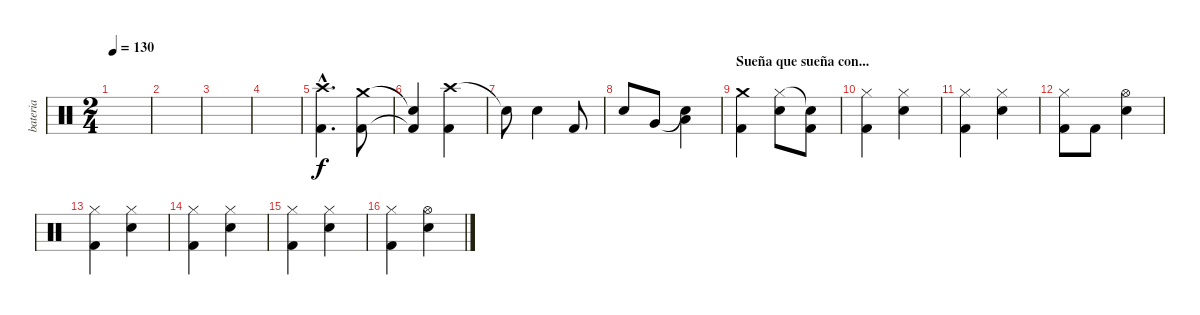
\track ("bateria" "bateria") {instrument percussion}
\staff {score}
\articulation defaults
\ts (2 4)
\tempo 130
\clef neutral
\ks c
|
|
|
|
("Crash high (hit)"{hac} "Kick (hit) 2"{hac}).4{d} ("Crash medium (hit)" "Kick (hit) 2").8 |
("Snare (hit)"{t} "Kick (hit) 2"{t}).4 ("Crash high (hit)" "Kick (hit) 2").4 |
"Snare (hit)"{t}.8 "Snare (hit) 2".4 "Kick (hit) 2".8 |
"Snare (hit) 2".8 "Very Low Tom (hit)".8 ("Snare (hit)"{t} "Low Floor Tom (hit)").4 |
\section ("" "Sueña que sueña con...")
("Crash medium (hit)" "Kick (hit) 2").4 ("Hi-Hat (closed)" "Electric Snare (hit)").8 ("Snare (hit)"{t} "Kick (hit) 2").8 |
("Hi-Hat (closed)" "Kick (hit) 2").4 ("Hi-Hat (closed)" "Electric Snare (hit)").4 |
("Hi-Hat (closed)" "Kick (hit) 2").4 ("Hi-Hat (closed)" "Electric Snare (hit)").4 |
("Hi-Hat (closed)" "Kick (hit) 2").8 "Kick (hit) 2".8 ("Hi-Hat (open)" "Electric Snare (hit)").4 |
("Hi-Hat (closed)" "Kick (hit) 2").4 ("Hi-Hat (closed)" "Electric Snare (hit)").4 |
("Hi-Hat (closed)" "Kick (hit) 2").4 ("Hi-Hat (closed)" "Electric Snare (hit)").4 |
("Hi-Hat (closed)" "Kick (hit) 2").4 ("Hi-Hat (closed)" "Electric Snare (hit)").4 |
("Hi-Hat (closed)" "Kick (hit) 2").4 ("Hi-Hat (open)" "Electric Snare (hit)").4
